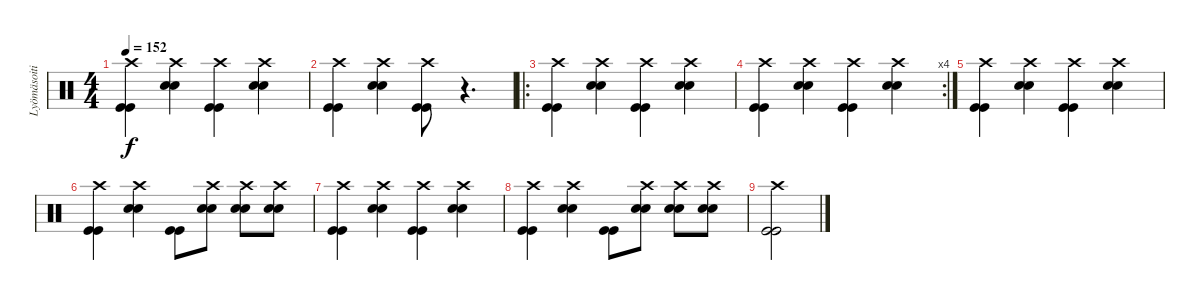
\track ("Lyömäsoitin" "Lyömäsoiti") {instrument percussion}
\staff {score}
\articulation defaults
\ts (4 4)
\tempo 152
\clef neutral
\ks c
("Crash high (hit)" "Kick (hit)" "Kick (hit)").4{dy f} ("Crash high (hit)" "Snare (hit) 2" "Snare (hit) 2").4 ("Crash high (hit)" "Kick (hit)" "Kick (hit)").4 ("Crash high (hit)" "Snare (hit) 2" "Snare (hit) 2").4 |
("Crash high (hit)" "Kick (hit)" "Kick (hit)").4 ("Crash high (hit)" "Snare (hit) 2" "Snare (hit) 2").4 ("Crash high (hit)" "Kick (hit)" "Kick (hit)").8 r.4{d} |
\ro
("Crash high (hit)" "Kick (hit)" "Kick (hit)").4 ("Crash high (hit)" "Snare (hit) 2" "Snare (hit) 2").4 ("Crash high (hit)" "Kick (hit)" "Kick (hit)").4 ("Crash high (hit)" "Snare (hit) 2" "Snare (hit) 2").4 |
\rc 4
("Crash high (hit)" "Kick (hit)" "Kick (hit)").4 ("Crash high (hit)" "Snare (hit) 2" "Snare (hit) 2").4 ("Crash high (hit)" "Kick (hit)" "Kick (hit)").4 ("Crash high (hit)" "Snare (hit) 2" "Snare (hit) 2").4 |
("Crash high (hit)" "Kick (hit)" "Kick (hit)").4 ("Crash high (hit)" "Snare (hit) 2" "Snare (hit) 2").4 ("Crash high (hit)" "Kick (hit)" "Kick (hit)").4 ("Crash high (hit)" "Snare (hit) 2" "Snare (hit) 2").4 |
("Crash high (hit)" "Kick (hit)" "Kick (hit)").4 ("Crash high (hit)" "Snare (hit) 2" "Snare (hit) 2").4 ("Kick (hit)" "Kick (hit)").8 ("Crash high (hit)" "Snare (hit) 2" "Snare (hit) 2").8 ("Crash high (hit)" "Snare (hit) 2" "Snare (hit) 2").8 ("Crash high (hit)" "Snare (hit) 2" "Snare (hit) 2").8 |
("Crash high (hit)" "Kick (hit)" "Kick (hit)").4 ("Crash high (hit)" "Snare (hit) 2" "Snare (hit) 2").4 ("Crash high (hit)" "Kick (hit)" "Kick (hit)").4 ("Crash high (hit)" "Snare (hit) 2" "Snare (hit) 2").4 |
("Crash high (hit)" "Kick (hit)" "Kick (hit)").4 ("Crash high (hit)" "Snare (hit) 2" "Snare (hit) 2").4 ("Kick (hit)" "Kick (hit)").8 ("Crash high (hit)" "Snare (hit) 2" "Snare (hit) 2").8 ("Crash high (hit)" "Snare (hit) 2" "Snare (hit) 2").8 ("Crash high (hit)" "Snare (hit) 2" "Snare (hit) 2").8 |
("Crash high (hit)" "Kick (hit)" "Kick (hit)").2
